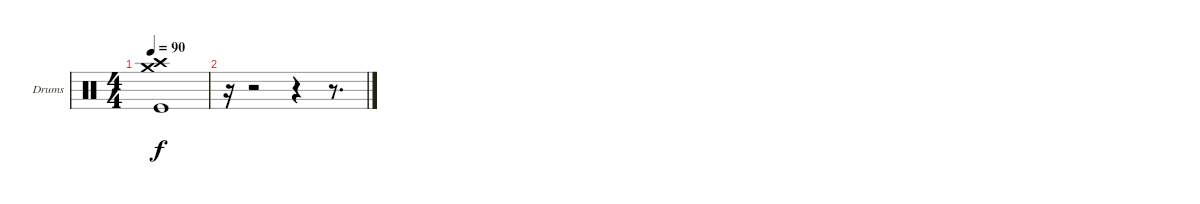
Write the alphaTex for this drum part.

\defaultSystemsLayout 4
\bracketExtendMode groupsimilarinstruments
\firstSystemTrackNameOrientation horizontal
\otherSystemsTrackNameOrientation horizontal
\track ("Percucion" "Drums") {instrument percussion}
\staff {score}
\articulation defaults
\ts (4 4)
\tempo 90
\clef neutral
\ks c
("Crash high (hit)" "Crash medium (hit)" "Kick (hit)").1{dy f} |
r.16 r.2 r.4 r.8{d}
